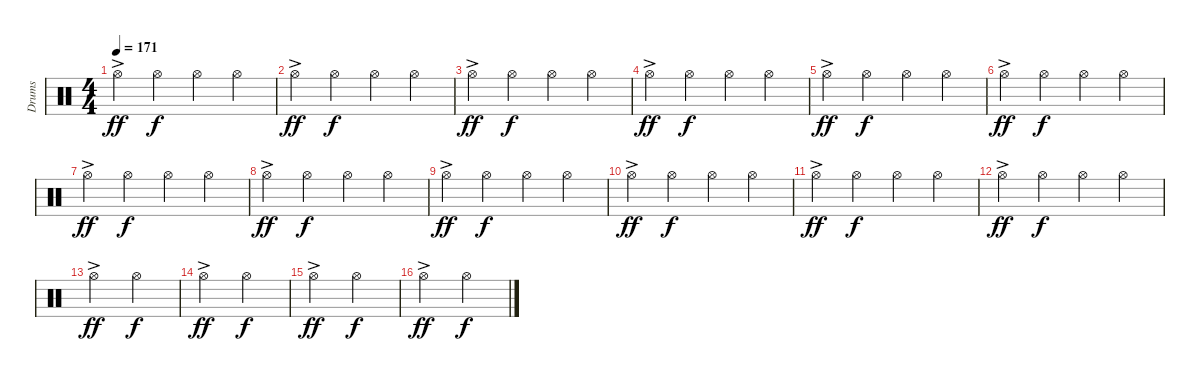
\track ("Drums" "Drums") {instrument percussion}
\staff {score}
\articulation defaults
\ts (4 4)
\tempo 171
\clef neutral
\ks c "Hi-Hat (open)"{ac}.4{dy ff} "Hi-Hat (open)".4{dy f} "Hi-Hat (open)".4 "Hi-Hat (open)".4
|
"Hi-Hat (open)"{ac}.4{dy ff} "Hi-Hat (open)".4{dy f} "Hi-Hat (open)".4 "Hi-Hat (open)".4 |
"Hi-Hat (open)"{ac}.4{dy ff} "Hi-Hat (open)".4{dy f} "Hi-Hat (open)".4 "Hi-Hat (open)".4 |
"Hi-Hat (open)"{ac}.4{dy ff} "Hi-Hat (open)".4{dy f} "Hi-Hat (open)".4 "Hi-Hat (open)".4 |
"Hi-Hat (open)"{ac}.4{dy ff} "Hi-Hat (open)".4{dy f} "Hi-Hat (open)".4 "Hi-Hat (open)".4 |
"Hi-Hat (open)"{ac}.4{dy ff} "Hi-Hat (open)".4{dy f} "Hi-Hat (open)".4 "Hi-Hat (open)".4 |
"Hi-Hat (open)"{ac}.4{dy ff} "Hi-Hat (open)".4{dy f} "Hi-Hat (open)".4 "Hi-Hat (open)".4 |
"Hi-Hat (open)"{ac}.4{dy ff} "Hi-Hat (open)".4{dy f} "Hi-Hat (open)".4 "Hi-Hat (open)".4 |
"Hi-Hat (open)"{ac}.4{dy ff} "Hi-Hat (open)".4{dy f} "Hi-Hat (open)".4 "Hi-Hat (open)".4 |
"Hi-Hat (open)"{ac}.4{dy ff} "Hi-Hat (open)".4{dy f} "Hi-Hat (open)".4 "Hi-Hat (open)".4 |
"Hi-Hat (open)"{ac}.4{dy ff} "Hi-Hat (open)".4{dy f} "Hi-Hat (open)".4 "Hi-Hat (open)".4 |
"Hi-Hat (open)"{ac}.4{dy ff} "Hi-Hat (open)".4{dy f} "Hi-Hat (open)".4 "Hi-Hat (open)".4 |
"Hi-Hat (open)"{ac}.2{dy ff} "Hi-Hat (open)".2{dy f} |
"Hi-Hat (open)"{ac}.2{dy ff} "Hi-Hat (open)".2{dy f} |
"Hi-Hat (open)"{ac}.2{dy ff} "Hi-Hat (open)".2{dy f} |
"Hi-Hat (open)"{ac}.2{dy ff} "Hi-Hat (open)".2{dy f}
